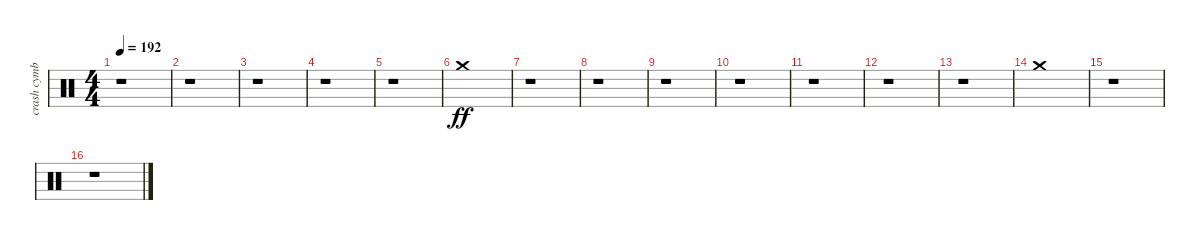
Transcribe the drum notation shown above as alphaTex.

\track ("crash cymbal" "crash cymb") {instrument percussion}
\staff {score}
\articulation defaults
\ts (4 4)
\tempo 192
\clef neutral
\ks c
r.1{dy ff} |
r.1 |
r.1 |
r.1 |
r.1 |
"Crash medium (hit)".1 |
r.1 |
r.1 |
r.1 |
r.1 |
r.1 |
r.1 |
r.1 |
"Crash medium (hit)".1 |
r.1 |
r.1
